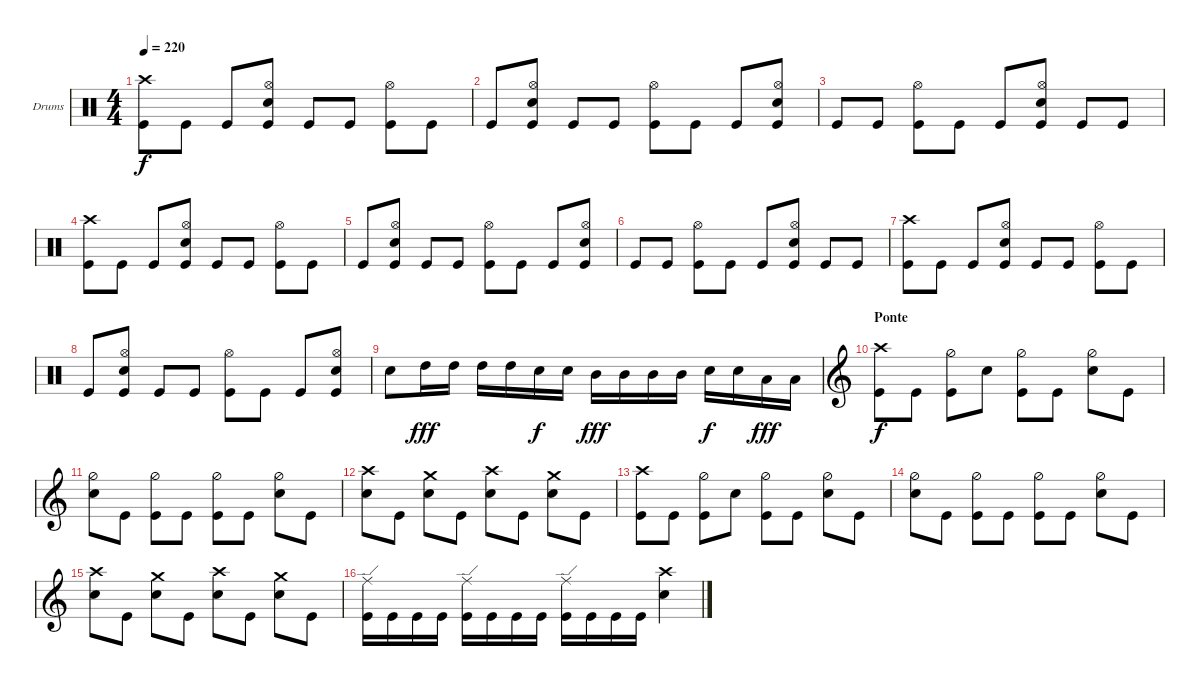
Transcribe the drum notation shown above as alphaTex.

\defaultSystemsLayout 4
\bracketExtendMode groupsimilarinstruments
\firstSystemTrackNameOrientation horizontal
\otherSystemsTrackNameOrientation horizontal
\track ("Drumkit" "Drums") {instrument percussion}
\staff {score}
\articulation defaults
\ts (4 4)
\tempo 220
\clef neutral
\ks c
("Kick (hit)" "Crash high (hit)").8{dy f} "Kick (hit)".8 "Kick (hit)".8 ("Hi-Hat (open)" "Snare (hit) 2" "Kick (hit)").8 "Kick (hit)".8 "Kick (hit)".8 ("Hi-Hat (open)" "Kick (hit)").8 "Kick (hit)".8 |
"Kick (hit)".8 ("Hi-Hat (open)" "Snare (hit) 2" "Kick (hit)").8 "Kick (hit)".8 "Kick (hit)".8 ("Hi-Hat (open)" "Kick (hit)").8 "Kick (hit)".8 "Kick (hit)".8 ("Hi-Hat (open)" "Snare (hit) 2" "Kick (hit)").8 |
"Kick (hit)".8 "Kick (hit)".8 ("Hi-Hat (open)" "Kick (hit)").8 "Kick (hit)".8 "Kick (hit)".8 ("Hi-Hat (open)" "Snare (hit) 2" "Kick (hit)").8 "Kick (hit)".8 "Kick (hit)".8 |
("Kick (hit)" "Crash high (hit)").8 "Kick (hit)".8 "Kick (hit)".8 ("Hi-Hat (open)" "Snare (hit) 2" "Kick (hit)").8 "Kick (hit)".8 "Kick (hit)".8 ("Hi-Hat (open)" "Kick (hit)").8 "Kick (hit)".8 |
"Kick (hit)".8 ("Hi-Hat (open)" "Snare (hit) 2" "Kick (hit)").8 "Kick (hit)".8 "Kick (hit)".8 ("Hi-Hat (open)" "Kick (hit)").8 "Kick (hit)".8 "Kick (hit)".8 ("Hi-Hat (open)" "Snare (hit) 2" "Kick (hit)").8 |
"Kick (hit)".8 "Kick (hit)".8 ("Hi-Hat (open)" "Kick (hit)").8 "Kick (hit)".8 "Kick (hit)".8 ("Hi-Hat (open)" "Snare (hit) 2" "Kick (hit)").8 "Kick (hit)".8 "Kick (hit)".8 |
("Kick (hit)" "Crash high (hit)").8 "Kick (hit)".8 "Kick (hit)".8 ("Hi-Hat (open)" "Snare (hit) 2" "Kick (hit)").8 "Kick (hit)".8 "Kick (hit)".8 ("Hi-Hat (open)" "Kick (hit)").8 "Kick (hit)".8 |
"Kick (hit)".8 ("Hi-Hat (open)" "Snare (hit) 2" "Kick (hit)").8 "Kick (hit)".8 "Kick (hit)".8 ("Hi-Hat (open)" "Kick (hit)").8 "Kick (hit)".8 "Kick (hit)".8 ("Hi-Hat (open)" "Snare (hit) 2" "Kick (hit)").8 |
"Snare (hit) 2".8 "High Tom (hit)".16{dy fff} "High Tom (hit)".16 "High Tom (hit)".16 "High Tom (hit)".16 "Snare (hit) 2".16{dy f} "Snare (hit) 2".16 "Mid Tom (hit)".16{dy fff} "Mid Tom (hit)".16 "Mid Tom (hit)".16 "Mid Tom (hit)".16 "Snare (hit) 2".16{dy f} "Snare (hit) 2".16 "Low Tom (hit)".16{dy fff} "Low Tom (hit)".16 |
\section ("" "Ponte")
\clef g2
("Kick (hit)" "Crash high (hit)").8{dy f} "Kick (hit)".8 ("Kick (hit)" "Hi-Hat (half)").8 "Snare (hit) 2".8 ("Kick (hit)" "Hi-Hat (half)").8 "Kick (hit)".8 ("Snare (hit) 2" "Hi-Hat (half)").8 "Kick (hit)".8 |
("Snare (hit) 2" "Hi-Hat (half)").8 "Kick (hit)".8 ("Kick (hit)" "Hi-Hat (half)").8 "Kick (hit)".8 ("Kick (hit)" "Hi-Hat (half)").8 "Kick (hit)".8 ("Snare (hit) 2" "Hi-Hat (half)").8 "Kick (hit)".8 |
("Snare (hit) 2" "Crash high (hit)").8 "Kick (hit)".8 ("Snare (hit) 2" "Crash medium (hit)").8 "Kick (hit)".8 ("Snare (hit) 2" "Crash high (hit)").8 "Kick (hit)".8 ("Crash medium (hit)" "Snare (hit) 2").8 "Kick (hit)".8 |
("Kick (hit)" "Crash high (hit)").8 "Kick (hit)".8 ("Kick (hit)" "Hi-Hat (half)").8 "Snare (hit) 2".8 ("Kick (hit)" "Hi-Hat (half)").8 "Kick (hit)".8 ("Snare (hit) 2" "Hi-Hat (half)").8 "Kick (hit)".8 |
("Snare (hit) 2" "Hi-Hat (half)").8 "Kick (hit)".8 ("Kick (hit)" "Hi-Hat (half)").8 "Kick (hit)".8 ("Kick (hit)" "Hi-Hat (half)").8 "Kick (hit)".8 ("Snare (hit) 2" "Hi-Hat (half)").8 "Kick (hit)".8 |
("Snare (hit) 2" "Crash high (hit)").8 "Kick (hit)".8 ("Snare (hit) 2" "Crash medium (hit)").8 "Kick (hit)".8 ("Snare (hit) 2" "Crash high (hit)").8 "Kick (hit)".8 ("Crash medium (hit)" "Snare (hit) 2").8 "Kick (hit)".8 |
("Kick (hit)" "Ride (edge)").16 "Kick (hit)".16 "Kick (hit)".16 "Kick (hit)".16 ("Kick (hit)" "Ride (edge)").16 "Kick (hit)".16 "Kick (hit)".16 "Kick (hit)".16 ("Kick (hit)" "Ride (edge)").16 "Kick (hit)".16 "Kick (hit)".16 "Kick (hit)".16 ("Snare (hit) 2" "Crash high (hit)").4
